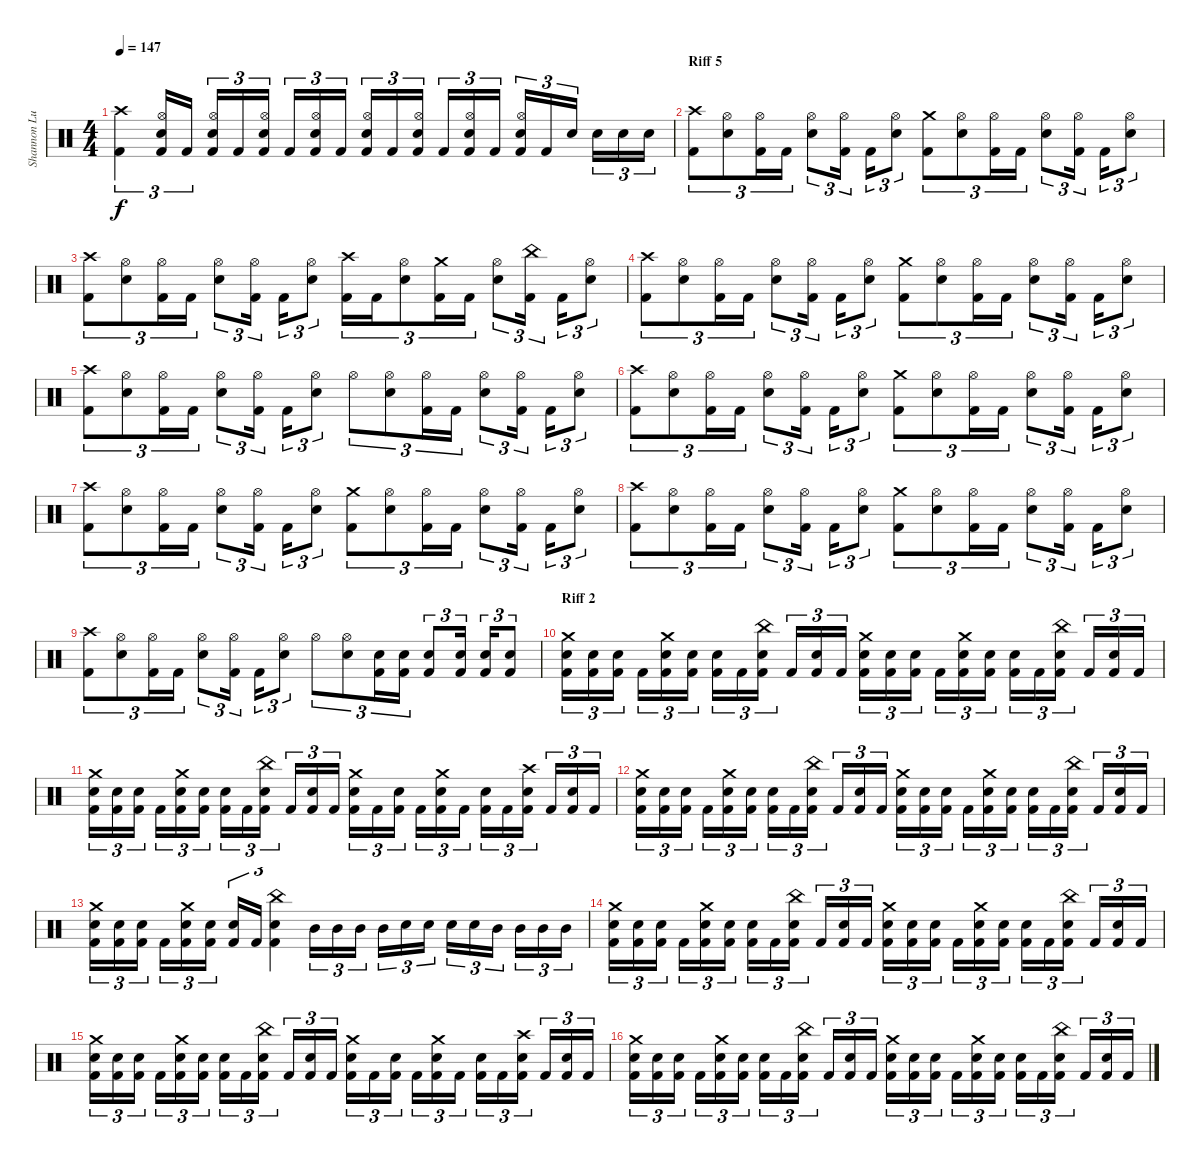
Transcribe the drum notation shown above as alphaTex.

\track ("Shannon Lucas (Drums)" "Shannon Lu") {instrument percussion}
\staff {score}
\articulation defaults
\ts (4 4)
\tempo 147
\clef neutral
\ks c
("Crash high (hit)" "Kick (hit) 2").4{tu (3 2) dy f} ("Hi-Hat (open)" "Snare (hit) 2" "Kick (hit) 2").16{tu (3 2)} "Kick (hit) 2".16{tu (3 2)} ("Hi-Hat (open)" "Snare (hit) 2" "Kick (hit) 2").16{tu (3 2)} "Kick (hit) 2".16{tu (3 2)} ("Hi-Hat (open)" "Snare (hit) 2" "Kick (hit) 2").16{tu (3 2)} "Kick (hit) 2".16{tu (3 2)} ("Hi-Hat (open)" "Snare (hit) 2" "Kick (hit) 2").16{tu (3 2)} "Kick (hit) 2".16{tu (3 2)} ("Hi-Hat (open)" "Snare (hit) 2" "Kick (hit) 2").16{tu (3 2)} "Kick (hit) 2".16{tu (3 2)} ("Hi-Hat (open)" "Snare (hit) 2" "Kick (hit) 2").16{tu (3 2)} "Kick (hit) 2".16{tu (3 2)} ("Hi-Hat (open)" "Snare (hit) 2" "Kick (hit) 2").16{tu (3 2)} "Kick (hit) 2".16{tu (3 2)} ("Hi-Hat (open)" "Snare (hit) 2" "Kick (hit) 2").16{tu (3 2)} "Kick (hit) 2".16{tu (3 2)} "Snare (hit) 2".16{tu (3 2)} "Snare (hit) 2".16{tu (3 2)} "Snare (hit) 2".16{tu (3 2)} "Snare (hit) 2".16{tu (3 2)} |
\section ("" "Riff 5")
("Crash high (hit)" "Kick (hit) 2").8{tu (3 2)} ("Hi-Hat (open)" "Snare (hit) 2").8{tu (3 2)} ("Hi-Hat (open)" "Kick (hit) 2").16{tu (3 2)} "Kick (hit) 2".16{tu (3 2)} ("Hi-Hat (open)" "Snare (hit) 2").8{tu (3 2)} ("Hi-Hat (open)" "Kick (hit) 2").16{tu (3 2)} "Kick (hit) 2".16{tu (3 2)} ("Hi-Hat (open)" "Snare (hit) 2").8{tu (3 2)} ("Crash medium (hit)" "Kick (hit) 2").8{tu (3 2)} ("Hi-Hat (open)" "Snare (hit) 2").8{tu (3 2)} ("Hi-Hat (open)" "Kick (hit) 2").16{tu (3 2)} "Kick (hit) 2".16{tu (3 2)} ("Hi-Hat (open)" "Snare (hit) 2").8{tu (3 2)} ("Hi-Hat (open)" "Kick (hit) 2").16{tu (3 2)} "Kick (hit) 2".16{tu (3 2)} ("Hi-Hat (open)" "Snare (hit) 2").8{tu (3 2)} |
("Crash high (hit)" "Kick (hit) 2").8{tu (3 2)} ("Hi-Hat (open)" "Snare (hit) 2").8{tu (3 2)} ("Hi-Hat (open)" "Kick (hit) 2").16{tu (3 2)} "Kick (hit) 2".16{tu (3 2)} ("Hi-Hat (open)" "Snare (hit) 2").8{tu (3 2)} ("Hi-Hat (open)" "Kick (hit) 2").16{tu (3 2)} "Kick (hit) 2".16{tu (3 2)} ("Hi-Hat (open)" "Snare (hit) 2").8{tu (3 2)} ("Crash high (hit)" "Kick (hit) 2").16{tu (3 2)} "Kick (hit) 2".16{tu (3 2)} ("Hi-Hat (open)" "Snare (hit) 2").8{tu (3 2)} ("Crash medium (hit)" "Kick (hit) 2").16{tu (3 2)} "Kick (hit) 2".16{tu (3 2)} ("Hi-Hat (open)" "Snare (hit) 2").8{tu (3 2)} ("China (hit)" "Kick (hit) 2").16{tu (3 2)} "Kick (hit) 2".16{tu (3 2)} ("Hi-Hat (open)" "Snare (hit) 2").8{tu (3 2)} |
("Crash high (hit)" "Kick (hit) 2").8{tu (3 2)} ("Hi-Hat (open)" "Snare (hit) 2").8{tu (3 2)} ("Hi-Hat (open)" "Kick (hit) 2").16{tu (3 2)} "Kick (hit) 2".16{tu (3 2)} ("Hi-Hat (open)" "Snare (hit) 2").8{tu (3 2)} ("Hi-Hat (open)" "Kick (hit) 2").16{tu (3 2)} "Kick (hit) 2".16{tu (3 2)} ("Hi-Hat (open)" "Snare (hit) 2").8{tu (3 2)} ("Crash medium (hit)" "Kick (hit) 2").8{tu (3 2)} ("Hi-Hat (open)" "Snare (hit) 2").8{tu (3 2)} ("Hi-Hat (open)" "Kick (hit) 2").16{tu (3 2)} "Kick (hit) 2".16{tu (3 2)} ("Hi-Hat (open)" "Snare (hit) 2").8{tu (3 2)} ("Hi-Hat (open)" "Kick (hit) 2").16{tu (3 2)} "Kick (hit) 2".16{tu (3 2)} ("Hi-Hat (open)" "Snare (hit) 2").8{tu (3 2)} |
("Crash high (hit)" "Kick (hit) 2").8{tu (3 2)} ("Hi-Hat (open)" "Snare (hit) 2").8{tu (3 2)} ("Hi-Hat (open)" "Kick (hit) 2").16{tu (3 2)} "Kick (hit) 2".16{tu (3 2)} ("Hi-Hat (open)" "Snare (hit) 2").8{tu (3 2)} ("Hi-Hat (open)" "Kick (hit) 2").16{tu (3 2)} "Kick (hit) 2".16{tu (3 2)} ("Hi-Hat (open)" "Snare (hit) 2").8{tu (3 2)} "Hi-Hat (open)".8{tu (3 2)} ("Hi-Hat (open)" "Snare (hit) 2").8{tu (3 2)} ("Hi-Hat (open)" "Kick (hit) 2").16{tu (3 2)} "Kick (hit) 2".16{tu (3 2)} ("Hi-Hat (open)" "Snare (hit) 2").8{tu (3 2)} ("Hi-Hat (open)" "Kick (hit) 2").16{tu (3 2)} "Kick (hit) 2".16{tu (3 2)} ("Hi-Hat (open)" "Snare (hit) 2").8{tu (3 2)} |
("Crash high (hit)" "Kick (hit) 2").8{tu (3 2)} ("Hi-Hat (open)" "Snare (hit) 2").8{tu (3 2)} ("Hi-Hat (open)" "Kick (hit) 2").16{tu (3 2)} "Kick (hit) 2".16{tu (3 2)} ("Hi-Hat (open)" "Snare (hit) 2").8{tu (3 2)} ("Hi-Hat (open)" "Kick (hit) 2").16{tu (3 2)} "Kick (hit) 2".16{tu (3 2)} ("Hi-Hat (open)" "Snare (hit) 2").8{tu (3 2)} ("Crash medium (hit)" "Kick (hit) 2").8{tu (3 2)} ("Hi-Hat (open)" "Snare (hit) 2").8{tu (3 2)} ("Hi-Hat (open)" "Kick (hit) 2").16{tu (3 2)} "Kick (hit) 2".16{tu (3 2)} ("Hi-Hat (open)" "Snare (hit) 2").8{tu (3 2)} ("Hi-Hat (open)" "Kick (hit) 2").16{tu (3 2)} "Kick (hit) 2".16{tu (3 2)} ("Hi-Hat (open)" "Snare (hit) 2").8{tu (3 2)} |
("Crash high (hit)" "Kick (hit) 2").8{tu (3 2)} ("Hi-Hat (open)" "Snare (hit) 2").8{tu (3 2)} ("Hi-Hat (open)" "Kick (hit) 2").16{tu (3 2)} "Kick (hit) 2".16{tu (3 2)} ("Hi-Hat (open)" "Snare (hit) 2").8{tu (3 2)} ("Hi-Hat (open)" "Kick (hit) 2").16{tu (3 2)} "Kick (hit) 2".16{tu (3 2)} ("Hi-Hat (open)" "Snare (hit) 2").8{tu (3 2)} ("Crash medium (hit)" "Kick (hit) 2").8{tu (3 2)} ("Hi-Hat (open)" "Snare (hit) 2").8{tu (3 2)} ("Hi-Hat (open)" "Kick (hit) 2").16{tu (3 2)} "Kick (hit) 2".16{tu (3 2)} ("Hi-Hat (open)" "Snare (hit) 2").8{tu (3 2)} ("Hi-Hat (open)" "Kick (hit) 2").16{tu (3 2)} "Kick (hit) 2".16{tu (3 2)} ("Hi-Hat (open)" "Snare (hit) 2").8{tu (3 2)} |
("Crash high (hit)" "Kick (hit) 2").8{tu (3 2)} ("Hi-Hat (open)" "Snare (hit) 2").8{tu (3 2)} ("Hi-Hat (open)" "Kick (hit) 2").16{tu (3 2)} "Kick (hit) 2".16{tu (3 2)} ("Hi-Hat (open)" "Snare (hit) 2").8{tu (3 2)} ("Hi-Hat (open)" "Kick (hit) 2").16{tu (3 2)} "Kick (hit) 2".16{tu (3 2)} ("Hi-Hat (open)" "Snare (hit) 2").8{tu (3 2)} ("Crash medium (hit)" "Kick (hit) 2").8{tu (3 2)} ("Hi-Hat (open)" "Snare (hit) 2").8{tu (3 2)} ("Hi-Hat (open)" "Kick (hit) 2").16{tu (3 2)} "Kick (hit) 2".16{tu (3 2)} ("Hi-Hat (open)" "Snare (hit) 2").8{tu (3 2)} ("Hi-Hat (open)" "Kick (hit) 2").16{tu (3 2)} "Kick (hit) 2".16{tu (3 2)} ("Hi-Hat (open)" "Snare (hit) 2").8{tu (3 2)} |
("Crash high (hit)" "Kick (hit) 2").8{tu (3 2)} ("Hi-Hat (open)" "Snare (hit) 2").8{tu (3 2)} ("Hi-Hat (open)" "Kick (hit) 2").16{tu (3 2)} "Kick (hit) 2".16{tu (3 2)} ("Hi-Hat (open)" "Snare (hit) 2").8{tu (3 2)} ("Hi-Hat (open)" "Kick (hit) 2").16{tu (3 2)} "Kick (hit) 2".16{tu (3 2)} ("Hi-Hat (open)" "Snare (hit) 2").8{tu (3 2)} "Hi-Hat (open)".8{tu (3 2)} ("Hi-Hat (open)" "Snare (hit) 2").8{tu (3 2)} ("Kick (hit) 2" "Snare (hit) 2").16{tu (3 2)} ("Kick (hit) 2" "Snare (hit) 2").16{tu (3 2)} ("Kick (hit) 2" "Snare (hit) 2").8{tu (3 2)} ("Kick (hit) 2" "Snare (hit) 2").16{tu (3 2)} ("Kick (hit) 2" "Snare (hit) 2").16{tu (3 2)} ("Kick (hit) 2" "Snare (hit) 2").8{tu (3 2)} |
\section ("" "Riff 2")
("Crash medium (hit)" "Snare (hit) 2" "Kick (hit) 2").16{tu (3 2)} ("Snare (hit) 2" "Kick (hit) 2").16{tu (3 2)} ("Snare (hit) 2" "Kick (hit) 2").16{tu (3 2)} "Kick (hit) 2".16{tu (3 2)} ("Crash medium (hit)" "Snare (hit) 2" "Kick (hit) 2").16{tu (3 2)} ("Snare (hit) 2" "Kick (hit) 2").16{tu (3 2)} ("Snare (hit) 2" "Kick (hit) 2").16{tu (3 2)} "Kick (hit) 2".16{tu (3 2)} ("China (hit)" "Snare (hit) 2" "Kick (hit) 2").16{tu (3 2)} "Kick (hit) 2".16{tu (3 2)} ("Snare (hit) 2" "Kick (hit) 2").16{tu (3 2)} "Kick (hit) 2".16{tu (3 2)} ("Crash medium (hit)" "Snare (hit) 2" "Kick (hit) 2").16{tu (3 2)} ("Snare (hit) 2" "Kick (hit) 2").16{tu (3 2)} ("Snare (hit) 2" "Kick (hit) 2").16{tu (3 2)} "Kick (hit) 2".16{tu (3 2)} ("Crash medium (hit)" "Snare (hit) 2" "Kick (hit) 2").16{tu (3 2)} ("Snare (hit) 2" "Kick (hit) 2").16{tu (3 2)} ("Snare (hit) 2" "Kick (hit) 2").16{tu (3 2)} "Kick (hit) 2".16{tu (3 2)} ("China (hit)" "Snare (hit) 2" "Kick (hit) 2").16{tu (3 2)} "Kick (hit) 2".16{tu (3 2)} ("Snare (hit) 2" "Kick (hit) 2").16{tu (3 2)} "Kick (hit) 2".16{tu (3 2)} |
("Crash medium (hit)" "Snare (hit) 2" "Kick (hit) 2").16{tu (3 2)} ("Snare (hit) 2" "Kick (hit) 2").16{tu (3 2)} ("Snare (hit) 2" "Kick (hit) 2").16{tu (3 2)} "Kick (hit) 2".16{tu (3 2)} ("Crash medium (hit)" "Snare (hit) 2" "Kick (hit) 2").16{tu (3 2)} ("Snare (hit) 2" "Kick (hit) 2").16{tu (3 2)} ("Snare (hit) 2" "Kick (hit) 2").16{tu (3 2)} "Kick (hit) 2".16{tu (3 2)} ("China (hit)" "Snare (hit) 2" "Kick (hit) 2").16{tu (3 2)} "Kick (hit) 2".16{tu (3 2)} ("Snare (hit) 2" "Kick (hit) 2").16{tu (3 2)} "Kick (hit) 2".16{tu (3 2)} ("Crash medium (hit)" "Snare (hit) 2" "Kick (hit) 2").16{tu (3 2)} "Kick (hit) 2".16{tu (3 2)} ("Snare (hit) 2" "Kick (hit) 2").16{tu (3 2)} "Kick (hit) 2".16{tu (3 2)} ("Crash medium (hit)" "Snare (hit) 2" "Kick (hit) 2").16{tu (3 2)} "Kick (hit) 2".16{tu (3 2)} ("Snare (hit) 2" "Kick (hit) 2").16{tu (3 2)} "Kick (hit) 2".16{tu (3 2)} ("Crash high (hit)" "Snare (hit) 2" "Kick (hit) 2").16{tu (3 2)} "Kick (hit) 2".16{tu (3 2)} ("Snare (hit) 2" "Kick (hit) 2").16{tu (3 2)} "Kick (hit) 2".16{tu (3 2)} |
("Crash medium (hit)" "Snare (hit) 2" "Kick (hit) 2").16{tu (3 2)} ("Snare (hit) 2" "Kick (hit) 2").16{tu (3 2)} ("Snare (hit) 2" "Kick (hit) 2").16{tu (3 2)} "Kick (hit) 2".16{tu (3 2)} ("Crash medium (hit)" "Snare (hit) 2" "Kick (hit) 2").16{tu (3 2)} ("Snare (hit) 2" "Kick (hit) 2").16{tu (3 2)} ("Snare (hit) 2" "Kick (hit) 2").16{tu (3 2)} "Kick (hit) 2".16{tu (3 2)} ("China (hit)" "Snare (hit) 2" "Kick (hit) 2").16{tu (3 2)} "Kick (hit) 2".16{tu (3 2)} ("Snare (hit) 2" "Kick (hit) 2").16{tu (3 2)} "Kick (hit) 2".16{tu (3 2)} ("Crash medium (hit)" "Snare (hit) 2" "Kick (hit) 2").16{tu (3 2)} ("Snare (hit) 2" "Kick (hit) 2").16{tu (3 2)} ("Snare (hit) 2" "Kick (hit) 2").16{tu (3 2)} "Kick (hit) 2".16{tu (3 2)} ("Crash medium (hit)" "Snare (hit) 2" "Kick (hit) 2").16{tu (3 2)} ("Snare (hit) 2" "Kick (hit) 2").16{tu (3 2)} ("Snare (hit) 2" "Kick (hit) 2").16{tu (3 2)} "Kick (hit) 2".16{tu (3 2)} ("China (hit)" "Snare (hit) 2" "Kick (hit) 2").16{tu (3 2)} "Kick (hit) 2".16{tu (3 2)} ("Snare (hit) 2" "Kick (hit) 2").16{tu (3 2)} "Kick (hit) 2".16{tu (3 2)} |
("Crash medium (hit)" "Snare (hit) 2" "Kick (hit) 2").16{tu (3 2)} ("Snare (hit) 2" "Kick (hit) 2").16{tu (3 2)} ("Snare (hit) 2" "Kick (hit) 2").16{tu (3 2)} "Kick (hit) 2".16{tu (3 2)} ("Crash medium (hit)" "Snare (hit) 2" "Kick (hit) 2").16{tu (3 2)} ("Snare (hit) 2" "Kick (hit) 2").16{tu (3 2)} ("Snare (hit) 2" "Kick (hit) 2").16{tu (3 2)} "Kick (hit) 2".16{tu (3 2)} ("China (hit)" "Snare (hit) 2" "Kick (hit) 2").4{tu (3 2)} "Mid Tom (hit)".16{tu (3 2)} "Mid Tom (hit)".16{tu (3 2)} "Mid Tom (hit)".16{tu (3 2)} "Mid Tom (hit)".16{tu (3 2)} "Snare (hit) 2".16{tu (3 2)} "Snare (hit) 2".16{tu (3 2)} "Snare (hit) 2".16{tu (3 2)} "Snare (hit) 2".16{tu (3 2)} "Mid Tom (hit)".16{tu (3 2)} "Mid Tom (hit)".16{tu (3 2)} "Mid Tom (hit)".16{tu (3 2)} "Mid Tom (hit)".16{tu (3 2)} |
("Crash medium (hit)" "Snare (hit) 2" "Kick (hit) 2").16{tu (3 2)} ("Snare (hit) 2" "Kick (hit) 2").16{tu (3 2)} ("Snare (hit) 2" "Kick (hit) 2").16{tu (3 2)} "Kick (hit) 2".16{tu (3 2)} ("Crash medium (hit)" "Snare (hit) 2" "Kick (hit) 2").16{tu (3 2)} ("Snare (hit) 2" "Kick (hit) 2").16{tu (3 2)} ("Snare (hit) 2" "Kick (hit) 2").16{tu (3 2)} "Kick (hit) 2".16{tu (3 2)} ("China (hit)" "Snare (hit) 2" "Kick (hit) 2").16{tu (3 2)} "Kick (hit) 2".16{tu (3 2)} ("Snare (hit) 2" "Kick (hit) 2").16{tu (3 2)} "Kick (hit) 2".16{tu (3 2)} ("Crash medium (hit)" "Snare (hit) 2" "Kick (hit) 2").16{tu (3 2)} ("Snare (hit) 2" "Kick (hit) 2").16{tu (3 2)} ("Snare (hit) 2" "Kick (hit) 2").16{tu (3 2)} "Kick (hit) 2".16{tu (3 2)} ("Crash medium (hit)" "Snare (hit) 2" "Kick (hit) 2").16{tu (3 2)} ("Snare (hit) 2" "Kick (hit) 2").16{tu (3 2)} ("Snare (hit) 2" "Kick (hit) 2").16{tu (3 2)} "Kick (hit) 2".16{tu (3 2)} ("China (hit)" "Snare (hit) 2" "Kick (hit) 2").16{tu (3 2)} "Kick (hit) 2".16{tu (3 2)} ("Snare (hit) 2" "Kick (hit) 2").16{tu (3 2)} "Kick (hit) 2".16{tu (3 2)} |
("Crash medium (hit)" "Snare (hit) 2" "Kick (hit) 2").16{tu (3 2)} ("Snare (hit) 2" "Kick (hit) 2").16{tu (3 2)} ("Snare (hit) 2" "Kick (hit) 2").16{tu (3 2)} "Kick (hit) 2".16{tu (3 2)} ("Crash medium (hit)" "Snare (hit) 2" "Kick (hit) 2").16{tu (3 2)} ("Snare (hit) 2" "Kick (hit) 2").16{tu (3 2)} ("Snare (hit) 2" "Kick (hit) 2").16{tu (3 2)} "Kick (hit) 2".16{tu (3 2)} ("China (hit)" "Snare (hit) 2" "Kick (hit) 2").16{tu (3 2)} "Kick (hit) 2".16{tu (3 2)} ("Snare (hit) 2" "Kick (hit) 2").16{tu (3 2)} "Kick (hit) 2".16{tu (3 2)} ("Crash medium (hit)" "Snare (hit) 2" "Kick (hit) 2").16{tu (3 2)} "Kick (hit) 2".16{tu (3 2)} ("Snare (hit) 2" "Kick (hit) 2").16{tu (3 2)} "Kick (hit) 2".16{tu (3 2)} ("Crash medium (hit)" "Snare (hit) 2" "Kick (hit) 2").16{tu (3 2)} "Kick (hit) 2".16{tu (3 2)} ("Snare (hit) 2" "Kick (hit) 2").16{tu (3 2)} "Kick (hit) 2".16{tu (3 2)} ("Crash high (hit)" "Snare (hit) 2" "Kick (hit) 2").16{tu (3 2)} "Kick (hit) 2".16{tu (3 2)} ("Snare (hit) 2" "Kick (hit) 2").16{tu (3 2)} "Kick (hit) 2".16{tu (3 2)} |
("Crash medium (hit)" "Snare (hit) 2" "Kick (hit) 2").16{tu (3 2)} ("Snare (hit) 2" "Kick (hit) 2").16{tu (3 2)} ("Snare (hit) 2" "Kick (hit) 2").16{tu (3 2)} "Kick (hit) 2".16{tu (3 2)} ("Crash medium (hit)" "Snare (hit) 2" "Kick (hit) 2").16{tu (3 2)} ("Snare (hit) 2" "Kick (hit) 2").16{tu (3 2)} ("Snare (hit) 2" "Kick (hit) 2").16{tu (3 2)} "Kick (hit) 2".16{tu (3 2)} ("China (hit)" "Snare (hit) 2" "Kick (hit) 2").16{tu (3 2)} "Kick (hit) 2".16{tu (3 2)} ("Snare (hit) 2" "Kick (hit) 2").16{tu (3 2)} "Kick (hit) 2".16{tu (3 2)} ("Crash medium (hit)" "Snare (hit) 2" "Kick (hit) 2").16{tu (3 2)} ("Snare (hit) 2" "Kick (hit) 2").16{tu (3 2)} ("Snare (hit) 2" "Kick (hit) 2").16{tu (3 2)} "Kick (hit) 2".16{tu (3 2)} ("Crash medium (hit)" "Snare (hit) 2" "Kick (hit) 2").16{tu (3 2)} ("Snare (hit) 2" "Kick (hit) 2").16{tu (3 2)} ("Snare (hit) 2" "Kick (hit) 2").16{tu (3 2)} "Kick (hit) 2".16{tu (3 2)} ("China (hit)" "Snare (hit) 2" "Kick (hit) 2").16{tu (3 2)} "Kick (hit) 2".16{tu (3 2)} ("Snare (hit) 2" "Kick (hit) 2").16{tu (3 2)} "Kick (hit) 2".16{tu (3 2)}
